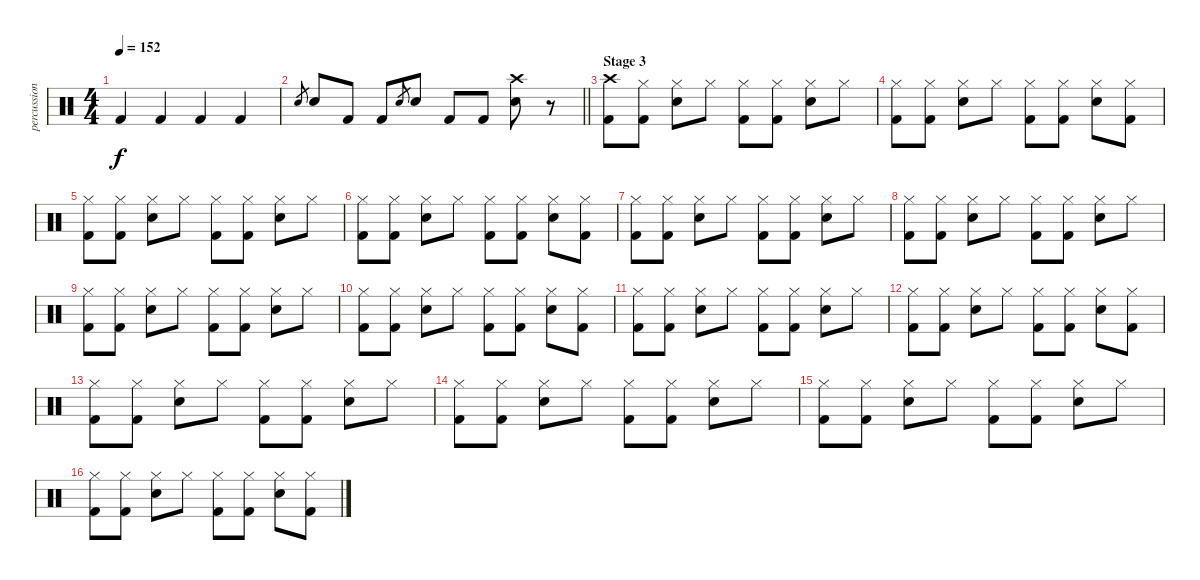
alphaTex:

\track ("percussion" "percussion") {instrument percussion}
\staff {score}
\articulation defaults
\ts (4 4)
\tempo 152
\clef neutral
\ks c "Kick (hit) 2".4{dy f} "Kick (hit) 2".4 "Kick (hit) 2".4 "Kick (hit) 2".4
|
\barLineRight lightlight "Electric Snare (hit)".8{gr} "Electric Snare (hit)".8 "Kick (hit) 2".8 "Kick (hit) 2".8 "Electric Snare (hit)".8{gr} "Electric Snare (hit)".8 "Kick (hit) 2".8 "Kick (hit) 2".8
("Crash high (hit)" "Electric Snare (hit)").8 r.8 |
\section ("" "Stage 3")
("Crash high (hit)" "Kick (hit) 2").8 ("Hi-Hat (closed)" "Kick (hit) 2").8 ("Electric Snare (hit)" "Hi-Hat (closed)").8 "Hi-Hat (closed)".8 ("Hi-Hat (closed)" "Kick (hit) 2").8 ("Hi-Hat (closed)" "Kick (hit) 2").8 ("Electric Snare (hit)" "Hi-Hat (closed)").8 "Hi-Hat (closed)".8 |
("Hi-Hat (closed)" "Kick (hit) 2").8 ("Hi-Hat (closed)" "Kick (hit) 2").8 ("Electric Snare (hit)" "Hi-Hat (closed)").8 "Hi-Hat (closed)".8 ("Hi-Hat (closed)" "Kick (hit) 2").8 ("Hi-Hat (closed)" "Kick (hit) 2").8 ("Electric Snare (hit)" "Hi-Hat (closed)").8 ("Hi-Hat (closed)" "Kick (hit) 2").8 |
("Hi-Hat (closed)" "Kick (hit) 2").8 ("Hi-Hat (closed)" "Kick (hit) 2").8 ("Electric Snare (hit)" "Hi-Hat (closed)").8 "Hi-Hat (closed)".8 ("Hi-Hat (closed)" "Kick (hit) 2").8 ("Hi-Hat (closed)" "Kick (hit) 2").8 ("Electric Snare (hit)" "Hi-Hat (closed)").8 "Hi-Hat (closed)".8 |
("Hi-Hat (closed)" "Kick (hit) 2").8 ("Hi-Hat (closed)" "Kick (hit) 2").8 ("Electric Snare (hit)" "Hi-Hat (closed)").8 "Hi-Hat (closed)".8 ("Hi-Hat (closed)" "Kick (hit) 2").8 ("Hi-Hat (closed)" "Kick (hit) 2").8 ("Electric Snare (hit)" "Hi-Hat (closed)").8 ("Hi-Hat (closed)" "Kick (hit) 2").8 |
("Hi-Hat (closed)" "Kick (hit) 2").8 ("Hi-Hat (closed)" "Kick (hit) 2").8 ("Electric Snare (hit)" "Hi-Hat (closed)").8 "Hi-Hat (closed)".8 ("Hi-Hat (closed)" "Kick (hit) 2").8 ("Hi-Hat (closed)" "Kick (hit) 2").8 ("Electric Snare (hit)" "Hi-Hat (closed)").8 "Hi-Hat (closed)".8 |
("Hi-Hat (closed)" "Kick (hit) 2").8 ("Hi-Hat (closed)" "Kick (hit) 2").8 ("Electric Snare (hit)" "Hi-Hat (closed)").8 "Hi-Hat (closed)".8 ("Hi-Hat (closed)" "Kick (hit) 2").8 ("Hi-Hat (closed)" "Kick (hit) 2").8 ("Electric Snare (hit)" "Hi-Hat (closed)").8 "Hi-Hat (closed)".8 |
("Hi-Hat (closed)" "Kick (hit) 2").8 ("Hi-Hat (closed)" "Kick (hit) 2").8 ("Electric Snare (hit)" "Hi-Hat (closed)").8 "Hi-Hat (closed)".8 ("Hi-Hat (closed)" "Kick (hit) 2").8 ("Hi-Hat (closed)" "Kick (hit) 2").8 ("Electric Snare (hit)" "Hi-Hat (closed)").8 "Hi-Hat (closed)".8 |
("Hi-Hat (closed)" "Kick (hit) 2").8 ("Hi-Hat (closed)" "Kick (hit) 2").8 ("Electric Snare (hit)" "Hi-Hat (closed)").8 "Hi-Hat (closed)".8 ("Hi-Hat (closed)" "Kick (hit) 2").8 ("Hi-Hat (closed)" "Kick (hit) 2").8 ("Electric Snare (hit)" "Hi-Hat (closed)").8 ("Hi-Hat (closed)" "Kick (hit) 2").8 |
("Hi-Hat (closed)" "Kick (hit) 2").8 ("Hi-Hat (closed)" "Kick (hit) 2").8 ("Electric Snare (hit)" "Hi-Hat (closed)").8 "Hi-Hat (closed)".8 ("Hi-Hat (closed)" "Kick (hit) 2").8 ("Hi-Hat (closed)" "Kick (hit) 2").8 ("Electric Snare (hit)" "Hi-Hat (closed)").8 "Hi-Hat (closed)".8 |
("Hi-Hat (closed)" "Kick (hit) 2").8 ("Hi-Hat (closed)" "Kick (hit) 2").8 ("Electric Snare (hit)" "Hi-Hat (closed)").8 "Hi-Hat (closed)".8 ("Hi-Hat (closed)" "Kick (hit) 2").8 ("Hi-Hat (closed)" "Kick (hit) 2").8 ("Electric Snare (hit)" "Hi-Hat (closed)").8 ("Hi-Hat (closed)" "Kick (hit) 2").8 |
("Hi-Hat (closed)" "Kick (hit) 2").8 ("Hi-Hat (closed)" "Kick (hit) 2").8 ("Electric Snare (hit)" "Hi-Hat (closed)").8 "Hi-Hat (closed)".8 ("Hi-Hat (closed)" "Kick (hit) 2").8 ("Hi-Hat (closed)" "Kick (hit) 2").8 ("Electric Snare (hit)" "Hi-Hat (closed)").8 "Hi-Hat (closed)".8 |
("Hi-Hat (closed)" "Kick (hit) 2").8 ("Hi-Hat (closed)" "Kick (hit) 2").8 ("Electric Snare (hit)" "Hi-Hat (closed)").8 "Hi-Hat (closed)".8 ("Hi-Hat (closed)" "Kick (hit) 2").8 ("Hi-Hat (closed)" "Kick (hit) 2").8 ("Electric Snare (hit)" "Hi-Hat (closed)").8 "Hi-Hat (closed)".8 |
("Hi-Hat (closed)" "Kick (hit) 2").8 ("Hi-Hat (closed)" "Kick (hit) 2").8 ("Electric Snare (hit)" "Hi-Hat (closed)").8 "Hi-Hat (closed)".8 ("Hi-Hat (closed)" "Kick (hit) 2").8 ("Hi-Hat (closed)" "Kick (hit) 2").8 ("Electric Snare (hit)" "Hi-Hat (closed)").8 "Hi-Hat (closed)".8 |
("Hi-Hat (closed)" "Kick (hit) 2").8 ("Hi-Hat (closed)" "Kick (hit) 2").8 ("Electric Snare (hit)" "Hi-Hat (closed)").8 "Hi-Hat (closed)".8 ("Hi-Hat (closed)" "Kick (hit) 2").8 ("Hi-Hat (closed)" "Kick (hit) 2").8 ("Electric Snare (hit)" "Hi-Hat (closed)").8 ("Hi-Hat (closed)" "Kick (hit) 2").8
